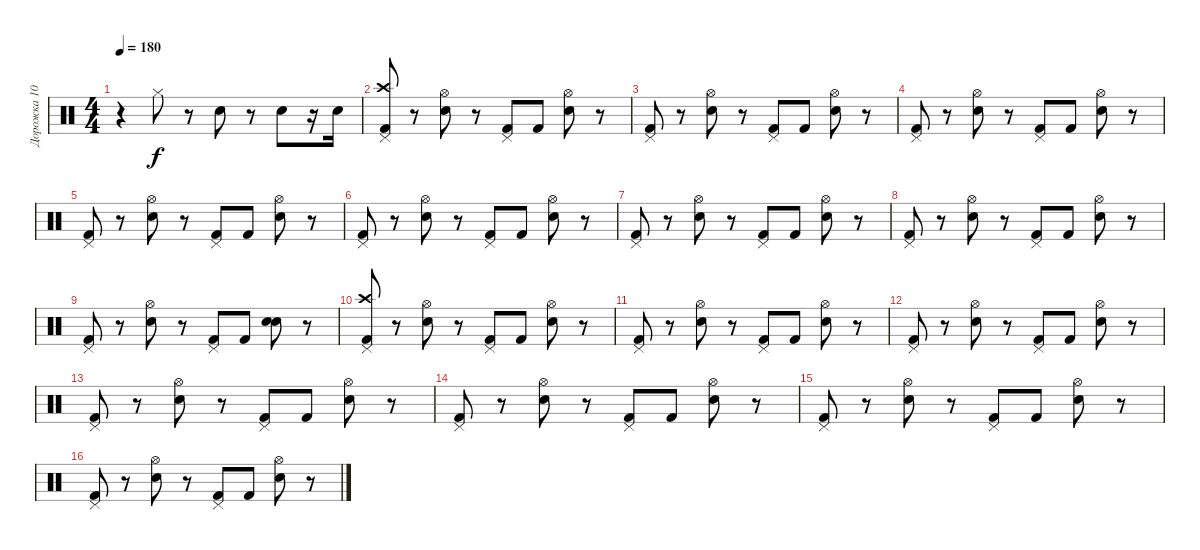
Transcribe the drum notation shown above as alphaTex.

\track ("Дорожка 10" "Дорожка 10") {instrument percussion}
\staff {score}
\articulation defaults
\ts (4 4)
\tempo 180
\clef neutral
\ks c
r.4{dy f} "Hi-Hat (closed)".8 r.8 "Snare (hit) 2".8 r.8 "Snare (hit) 2".8 r.16 "Snare (hit) 2".16 |
("Kick (hit) 2" "Crash high (hit)" "Pedal Hi-Hat (hit)").8 r.8 ("Snare (hit) 2" "Hi-Hat (open)").8 r.8 ("Kick (hit) 2" "Pedal Hi-Hat (hit)").8 "Kick (hit) 2".8 ("Snare (hit) 2" "Hi-Hat (open)").8 r.8 |
("Kick (hit) 2" "Pedal Hi-Hat (hit)").8 r.8 ("Snare (hit) 2" "Hi-Hat (open)").8 r.8 ("Kick (hit) 2" "Pedal Hi-Hat (hit)").8 "Kick (hit) 2".8 ("Snare (hit) 2" "Hi-Hat (open)").8 r.8 |
("Kick (hit) 2" "Pedal Hi-Hat (hit)").8 r.8 ("Snare (hit) 2" "Hi-Hat (open)").8 r.8 ("Kick (hit) 2" "Pedal Hi-Hat (hit)").8 "Kick (hit) 2".8 ("Snare (hit) 2" "Hi-Hat (open)").8 r.8 |
("Kick (hit) 2" "Pedal Hi-Hat (hit)").8 r.8 ("Snare (hit) 2" "Hi-Hat (open)").8 r.8 ("Kick (hit) 2" "Pedal Hi-Hat (hit)").8 "Kick (hit) 2".8 ("Snare (hit) 2" "Hi-Hat (open)").8 r.8 |
("Kick (hit) 2" "Pedal Hi-Hat (hit)").8 r.8 ("Snare (hit) 2" "Hi-Hat (open)").8 r.8 ("Kick (hit) 2" "Pedal Hi-Hat (hit)").8 "Kick (hit) 2".8 ("Snare (hit) 2" "Hi-Hat (open)").8 r.8 |
("Kick (hit) 2" "Pedal Hi-Hat (hit)").8 r.8 ("Snare (hit) 2" "Hi-Hat (open)").8 r.8 ("Kick (hit) 2" "Pedal Hi-Hat (hit)").8 "Kick (hit) 2".8 ("Snare (hit) 2" "Hi-Hat (open)").8 r.8 |
("Kick (hit) 2" "Pedal Hi-Hat (hit)").8 r.8 ("Snare (hit) 2" "Hi-Hat (open)").8 r.8 ("Kick (hit) 2" "Pedal Hi-Hat (hit)").8 "Kick (hit) 2".8 ("Snare (hit) 2" "Hi-Hat (open)").8 r.8 |
("Kick (hit) 2" "Pedal Hi-Hat (hit)").8 r.8 ("Snare (hit) 2" "Hi-Hat (open)").8 r.8 ("Kick (hit) 2" "Pedal Hi-Hat (hit)").8 "Kick (hit) 2".8 ("Snare (hit) 2" "Electric Snare (hit)").8 r.8 |
("Kick (hit) 2" "Crash high (hit)" "Pedal Hi-Hat (hit)").8 r.8 ("Snare (hit) 2" "Hi-Hat (open)").8 r.8 ("Kick (hit) 2" "Pedal Hi-Hat (hit)").8 "Kick (hit) 2".8 ("Snare (hit) 2" "Hi-Hat (open)").8 r.8 |
("Kick (hit) 2" "Pedal Hi-Hat (hit)").8 r.8 ("Snare (hit) 2" "Hi-Hat (open)").8 r.8 ("Kick (hit) 2" "Pedal Hi-Hat (hit)").8 "Kick (hit) 2".8 ("Snare (hit) 2" "Hi-Hat (open)").8 r.8 |
("Kick (hit) 2" "Pedal Hi-Hat (hit)").8 r.8 ("Snare (hit) 2" "Hi-Hat (open)").8 r.8 ("Kick (hit) 2" "Pedal Hi-Hat (hit)").8 "Kick (hit) 2".8 ("Snare (hit) 2" "Hi-Hat (open)").8 r.8 |
("Kick (hit) 2" "Pedal Hi-Hat (hit)").8 r.8 ("Snare (hit) 2" "Hi-Hat (open)").8 r.8 ("Kick (hit) 2" "Pedal Hi-Hat (hit)").8 "Kick (hit) 2".8 ("Snare (hit) 2" "Hi-Hat (open)").8 r.8 |
("Kick (hit) 2" "Pedal Hi-Hat (hit)").8 r.8 ("Snare (hit) 2" "Hi-Hat (open)").8 r.8 ("Kick (hit) 2" "Pedal Hi-Hat (hit)").8 "Kick (hit) 2".8 ("Snare (hit) 2" "Hi-Hat (open)").8 r.8 |
("Kick (hit) 2" "Pedal Hi-Hat (hit)").8 r.8 ("Snare (hit) 2" "Hi-Hat (open)").8 r.8 ("Kick (hit) 2" "Pedal Hi-Hat (hit)").8 "Kick (hit) 2".8 ("Snare (hit) 2" "Hi-Hat (open)").8 r.8 |
("Kick (hit) 2" "Pedal Hi-Hat (hit)").8 r.8 ("Snare (hit) 2" "Hi-Hat (open)").8 r.8 ("Kick (hit) 2" "Pedal Hi-Hat (hit)").8 "Kick (hit) 2".8 ("Snare (hit) 2" "Hi-Hat (open)").8 r.8
